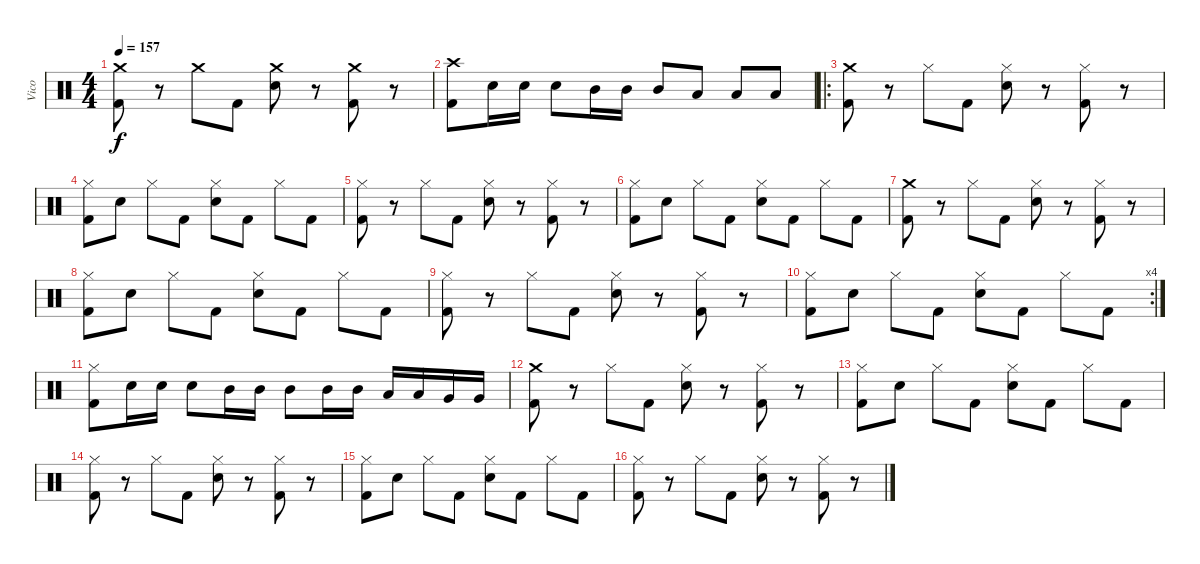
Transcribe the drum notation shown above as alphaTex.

\track ("Vico" "Vico") {instrument percussion}
\staff {score}
\articulation defaults
\ts (4 4)
\tempo 157
\clef neutral
\ks c
("Crash medium (hit)" "Kick (hit) 2").8{dy f} r.8 "Crash medium (hit)".8 "Kick (hit) 2".8 ("Crash medium (hit)" "Electric Snare (hit)").8 r.8 ("Crash medium (hit)" "Kick (hit) 2").8 r.8 |
("Crash high (hit)" "Kick (hit) 2").8 "Electric Snare (hit)".16 "Electric Snare (hit)".16 "Electric Snare (hit)".8 "Mid Tom (hit)".16 "Mid Tom (hit)".16 "Mid Tom (hit)".8 "Low Tom (hit)".8 "Low Tom (hit)".8 "Low Tom (hit)".8 |
\ro
("Crash medium (hit)" "Kick (hit) 2").8 r.8 "Hi-Hat (closed)".8 "Kick (hit) 2".8 ("Hi-Hat (closed)" "Electric Snare (hit)").8 r.8 ("Hi-Hat (closed)" "Kick (hit) 2").8 r.8 |
("Hi-Hat (closed)" "Kick (hit) 2").8 "Electric Snare (hit)".8 "Hi-Hat (closed)".8 "Kick (hit) 2".8 ("Hi-Hat (closed)" "Electric Snare (hit)").8 "Kick (hit) 2".8 "Hi-Hat (closed)".8 "Kick (hit) 2".8 |
("Hi-Hat (closed)" "Kick (hit) 2").8 r.8 "Hi-Hat (closed)".8 "Kick (hit) 2".8 ("Hi-Hat (closed)" "Electric Snare (hit)").8 r.8 ("Hi-Hat (closed)" "Kick (hit) 2").8 r.8 |
("Hi-Hat (closed)" "Kick (hit) 2").8 "Electric Snare (hit)".8 "Hi-Hat (closed)".8 "Kick (hit) 2".8 ("Hi-Hat (closed)" "Electric Snare (hit)").8 "Kick (hit) 2".8 "Hi-Hat (closed)".8 "Kick (hit) 2".8 |
("Crash medium (hit)" "Kick (hit) 2").8 r.8 "Hi-Hat (closed)".8 "Kick (hit) 2".8 ("Hi-Hat (closed)" "Electric Snare (hit)").8 r.8 ("Hi-Hat (closed)" "Kick (hit) 2").8 r.8 |
("Hi-Hat (closed)" "Kick (hit) 2").8 "Electric Snare (hit)".8 "Hi-Hat (closed)".8 "Kick (hit) 2".8 ("Hi-Hat (closed)" "Electric Snare (hit)").8 "Kick (hit) 2".8 "Hi-Hat (closed)".8 "Kick (hit) 2".8 |
("Hi-Hat (closed)" "Kick (hit) 2").8 r.8 "Hi-Hat (closed)".8 "Kick (hit) 2".8 ("Hi-Hat (closed)" "Electric Snare (hit)").8 r.8 ("Hi-Hat (closed)" "Kick (hit) 2").8 r.8 |
\rc 4
("Hi-Hat (closed)" "Kick (hit) 2").8 "Electric Snare (hit)".8 "Hi-Hat (closed)".8 "Kick (hit) 2".8 ("Hi-Hat (closed)" "Electric Snare (hit)").8 "Kick (hit) 2".8 "Hi-Hat (closed)".8 "Kick (hit) 2".8 |
("Hi-Hat (closed)" "Kick (hit) 2").8 "Electric Snare (hit)".16 "Electric Snare (hit)".16 "Electric Snare (hit)".8 "Mid Tom (hit)".16 "Mid Tom (hit)".16 "Mid Tom (hit)".8 "Mid Tom (hit)".16 "Mid Tom (hit)".16 "Low Tom (hit)".16 "Low Tom (hit)".16 "Very Low Tom (hit)".16 "Very Low Tom (hit)".16 |
("Crash medium (hit)" "Kick (hit) 2").8 r.8 "Hi-Hat (closed)".8 "Kick (hit) 2".8 ("Hi-Hat (closed)" "Electric Snare (hit)").8 r.8 ("Hi-Hat (closed)" "Kick (hit) 2").8 r.8 |
("Hi-Hat (closed)" "Kick (hit) 2").8 "Electric Snare (hit)".8 "Hi-Hat (closed)".8 "Kick (hit) 2".8 ("Hi-Hat (closed)" "Electric Snare (hit)").8 "Kick (hit) 2".8 "Hi-Hat (closed)".8 "Kick (hit) 2".8 |
("Hi-Hat (closed)" "Kick (hit) 2").8 r.8 "Hi-Hat (closed)".8 "Kick (hit) 2".8 ("Hi-Hat (closed)" "Electric Snare (hit)").8 r.8 ("Hi-Hat (closed)" "Kick (hit) 2").8 r.8 |
("Hi-Hat (closed)" "Kick (hit) 2").8 "Electric Snare (hit)".8 "Hi-Hat (closed)".8 "Kick (hit) 2".8 ("Hi-Hat (closed)" "Electric Snare (hit)").8 "Kick (hit) 2".8 "Hi-Hat (closed)".8 "Kick (hit) 2".8 |
("Hi-Hat (closed)" "Kick (hit) 2").8 r.8 "Hi-Hat (closed)".8 "Kick (hit) 2".8 ("Hi-Hat (closed)" "Electric Snare (hit)").8 r.8 ("Hi-Hat (closed)" "Kick (hit) 2").8 r.8
